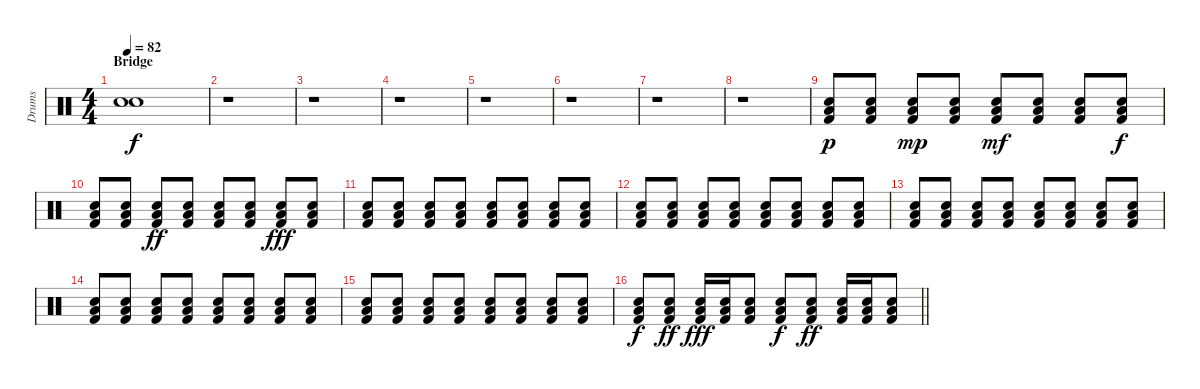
\track ("Drums" "Drums") {instrument percussion}
\staff {score}
\articulation defaults
\ts (4 4)
\section ("" "Bridge")
\tempo 82
\clef neutral
\ks c
("Snare (hit)"{t} "Snare (hit)"{t}).1{dy f} |
r.1 |
r.1 |
r.1 |
r.1 |
r.1 |
r.1 |
r.1 |
("Electric Snare (hit)" "Low Floor Tom (hit)" "Kick (hit) 2").8{dy p} ("Electric Snare (hit)" "Low Floor Tom (hit)" "Kick (hit) 2").8 ("Electric Snare (hit)" "Low Floor Tom (hit)" "Kick (hit) 2").8{dy mp} ("Electric Snare (hit)" "Low Floor Tom (hit)" "Kick (hit) 2").8 ("Electric Snare (hit)" "Low Floor Tom (hit)" "Kick (hit) 2").8{dy mf} ("Electric Snare (hit)" "Low Floor Tom (hit)" "Kick (hit) 2").8 ("Electric Snare (hit)" "Low Floor Tom (hit)" "Kick (hit) 2").8 ("Electric Snare (hit)" "Low Floor Tom (hit)" "Kick (hit) 2").8{dy f} |
("Electric Snare (hit)" "Low Floor Tom (hit)" "Kick (hit) 2").8 ("Electric Snare (hit)" "Low Floor Tom (hit)" "Kick (hit) 2").8 ("Electric Snare (hit)" "Low Floor Tom (hit)" "Kick (hit) 2").8{dy ff} ("Electric Snare (hit)" "Low Floor Tom (hit)" "Kick (hit) 2").8 ("Electric Snare (hit)" "Low Floor Tom (hit)" "Kick (hit) 2").8 ("Electric Snare (hit)" "Low Floor Tom (hit)" "Kick (hit) 2").8 ("Electric Snare (hit)" "Low Floor Tom (hit)" "Kick (hit) 2").8{dy fff} ("Electric Snare (hit)" "Low Floor Tom (hit)" "Kick (hit) 2").8 |
("Electric Snare (hit)" "Low Floor Tom (hit)" "Kick (hit) 2").8 ("Electric Snare (hit)" "Low Floor Tom (hit)" "Kick (hit) 2").8 ("Electric Snare (hit)" "Low Floor Tom (hit)" "Kick (hit) 2").8 ("Electric Snare (hit)" "Low Floor Tom (hit)" "Kick (hit) 2").8 ("Electric Snare (hit)" "Low Floor Tom (hit)" "Kick (hit) 2").8 ("Electric Snare (hit)" "Low Floor Tom (hit)" "Kick (hit) 2").8 ("Electric Snare (hit)" "Low Floor Tom (hit)" "Kick (hit) 2").8 ("Electric Snare (hit)" "Low Floor Tom (hit)" "Kick (hit) 2").8 |
("Electric Snare (hit)" "Low Floor Tom (hit)" "Kick (hit) 2").8 ("Electric Snare (hit)" "Low Floor Tom (hit)" "Kick (hit) 2").8 ("Electric Snare (hit)" "Low Floor Tom (hit)" "Kick (hit) 2").8 ("Electric Snare (hit)" "Low Floor Tom (hit)" "Kick (hit) 2").8 ("Electric Snare (hit)" "Low Floor Tom (hit)" "Kick (hit) 2").8 ("Electric Snare (hit)" "Low Floor Tom (hit)" "Kick (hit) 2").8 ("Electric Snare (hit)" "Low Floor Tom (hit)" "Kick (hit) 2").8 ("Electric Snare (hit)" "Low Floor Tom (hit)" "Kick (hit) 2").8 |
("Electric Snare (hit)" "Low Floor Tom (hit)" "Kick (hit) 2").8 ("Electric Snare (hit)" "Low Floor Tom (hit)" "Kick (hit) 2").8 ("Electric Snare (hit)" "Low Floor Tom (hit)" "Kick (hit) 2").8 ("Electric Snare (hit)" "Low Floor Tom (hit)" "Kick (hit) 2").8 ("Electric Snare (hit)" "Low Floor Tom (hit)" "Kick (hit) 2").8 ("Electric Snare (hit)" "Low Floor Tom (hit)" "Kick (hit) 2").8 ("Electric Snare (hit)" "Low Floor Tom (hit)" "Kick (hit) 2").8 ("Electric Snare (hit)" "Low Floor Tom (hit)" "Kick (hit) 2").8 |
("Electric Snare (hit)" "Low Floor Tom (hit)" "Kick (hit) 2").8 ("Electric Snare (hit)" "Low Floor Tom (hit)" "Kick (hit) 2").8 ("Electric Snare (hit)" "Low Floor Tom (hit)" "Kick (hit) 2").8 ("Electric Snare (hit)" "Low Floor Tom (hit)" "Kick (hit) 2").8 ("Electric Snare (hit)" "Low Floor Tom (hit)" "Kick (hit) 2").8 ("Electric Snare (hit)" "Low Floor Tom (hit)" "Kick (hit) 2").8 ("Electric Snare (hit)" "Low Floor Tom (hit)" "Kick (hit) 2").8 ("Electric Snare (hit)" "Low Floor Tom (hit)" "Kick (hit) 2").8 |
("Electric Snare (hit)" "Low Floor Tom (hit)" "Kick (hit) 2").8 ("Electric Snare (hit)" "Low Floor Tom (hit)" "Kick (hit) 2").8 ("Electric Snare (hit)" "Low Floor Tom (hit)" "Kick (hit) 2").8 ("Electric Snare (hit)" "Low Floor Tom (hit)" "Kick (hit) 2").8 ("Electric Snare (hit)" "Low Floor Tom (hit)" "Kick (hit) 2").8 ("Electric Snare (hit)" "Low Floor Tom (hit)" "Kick (hit) 2").8 ("Electric Snare (hit)" "Low Floor Tom (hit)" "Kick (hit) 2").8 ("Electric Snare (hit)" "Low Floor Tom (hit)" "Kick (hit) 2").8 |
\barLineRight lightlight
("Electric Snare (hit)" "Low Floor Tom (hit)" "Kick (hit) 2").8{dy f} ("Electric Snare (hit)" "Low Floor Tom (hit)" "Kick (hit) 2").8{dy ff} ("Electric Snare (hit)" "Low Floor Tom (hit)" "Kick (hit) 2").16{dy fff} ("Electric Snare (hit)" "Low Floor Tom (hit)" "Kick (hit) 2").16 ("Electric Snare (hit)" "Low Floor Tom (hit)" "Kick (hit) 2").8 ("Electric Snare (hit)" "Low Floor Tom (hit)" "Kick (hit) 2").8{dy f} ("Electric Snare (hit)" "Low Floor Tom (hit)" "Kick (hit) 2").8{dy ff} ("Electric Snare (hit)" "Low Floor Tom (hit)" "Kick (hit) 2").16 ("Electric Snare (hit)" "Low Floor Tom (hit)" "Kick (hit) 2").16 ("Electric Snare (hit)" "Low Floor Tom (hit)" "Kick (hit) 2").8
